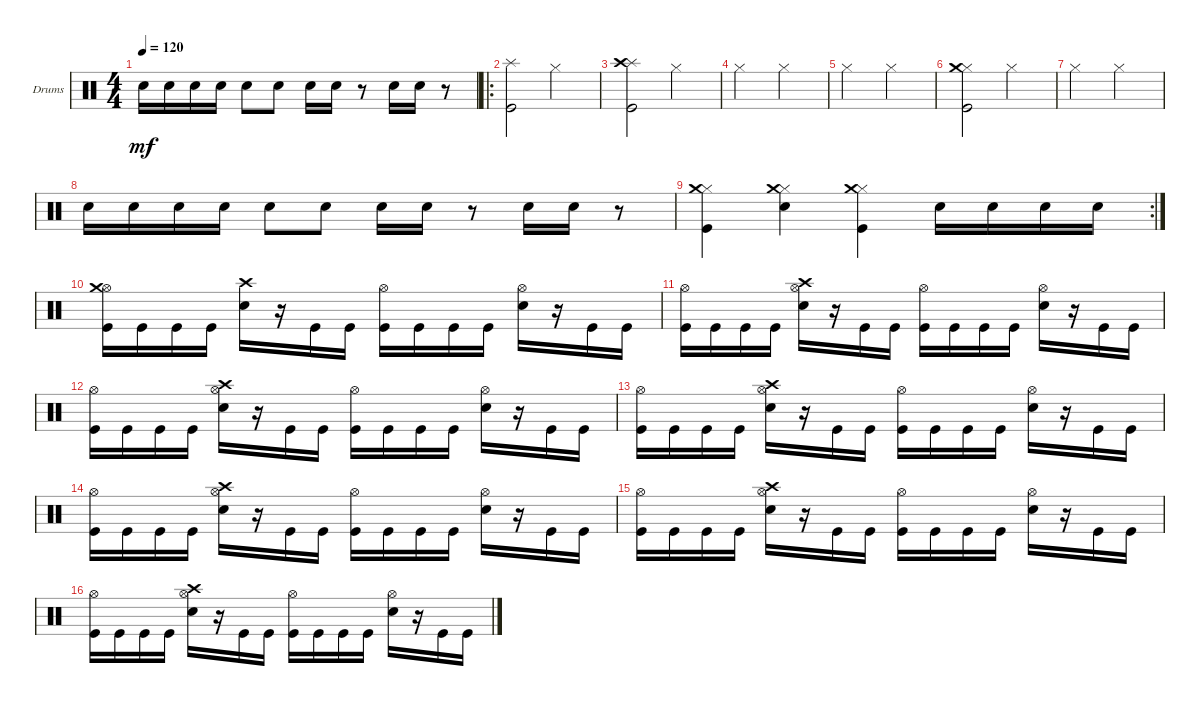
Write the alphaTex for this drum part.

\bracketExtendMode groupsimilarinstruments
\firstSystemTrackNameOrientation horizontal
\otherSystemsTrackNameOrientation horizontal
\track ("Drumkit" "Drums") {instrument percussion}
\staff {score}
\articulation defaults
\ts (4 4)
\tempo 120
\clef neutral
\ks c "Snare (hit) 2".16{dy mf} "Snare (hit) 2".16 "Snare (hit) 2".16 "Snare (hit) 2".16 "Snare (hit) 2".8 "Snare (hit) 2".8 "Snare (hit) 2".16 "Snare (hit) 2".16
r.8 "Snare (hit) 2".16 "Snare (hit) 2".16 r.8 |
\ro
\scale
0.502222 ("Splash (hit)" "Kick (hit)").2 "Hi-Hat (closed)".2 |
\scale
0.248889 ("Splash (hit)" "Kick (hit)" "Crash high (hit)").2 "Hi-Hat (closed)".2 |
\scale
0.248889 "Hi-Hat (closed)".2 "Hi-Hat (closed)".2 |
\scale
0.333333 "Hi-Hat (closed)".2 "Hi-Hat (closed)".2 |
\scale
0.333333 ("Hi-Hat (closed)" "Kick (hit)" "Crash medium (hit)").2 "Hi-Hat (closed)".2 |
\scale
0.333333 "Hi-Hat (closed)".2 "Hi-Hat (closed)".2 |
\scale
0.321839 "Snare (hit) 2".16 "Snare (hit) 2".16 "Snare (hit) 2".16 "Snare (hit) 2".16 "Snare (hit) 2".8 "Snare (hit) 2".8 "Snare (hit) 2".16 "Snare (hit) 2".16 r.8 "Snare (hit) 2".16 "Snare (hit) 2".16 r.8 |
\rc 2
\scale
0.356322 ("Hi-Hat (closed)" "Crash medium (hit)" "Kick (hit)").4 ("Hi-Hat (closed)" "Crash medium (hit)" "Snare (hit) 2").4 ("Hi-Hat (closed)" "Crash medium (hit)" "Kick (hit)").4 "Snare (hit) 2".16 "Snare (hit) 2".16 "Snare (hit) 2".16 "Snare (hit) 2".16 |
\scale
0.321839 ("Hi-Hat (open)" "Crash medium (hit)" "Kick (hit)").16 "Kick (hit)".16 "Kick (hit)".16 "Kick (hit)".16 ("Snare (hit) 2" "Crash high (hit)").16 r.16 "Kick (hit)".16 "Kick (hit)".16 ("Kick (hit)" "Hi-Hat (open)").16 "Kick (hit)".16 "Kick (hit)".16 "Kick (hit)".16 ("Snare (hit) 2" "Hi-Hat (open)").16 r.16 "Kick (hit)".16 "Kick (hit)".16 |
\scale
0.333333 ("Hi-Hat (open)" "Kick (hit)").16 "Kick (hit)".16 "Kick (hit)".16 "Kick (hit)".16 ("Snare (hit) 2" "Crash high (hit)" "Hi-Hat (open)").16 r.16 "Kick (hit)".16 "Kick (hit)".16 ("Kick (hit)" "Hi-Hat (open)").16 "Kick (hit)".16 "Kick (hit)".16 "Kick (hit)".16 ("Snare (hit) 2" "Hi-Hat (open)").16 r.16 "Kick (hit)".16 "Kick (hit)".16 |
\scale
0.333333 ("Hi-Hat (open)" "Kick (hit)").16 "Kick (hit)".16 "Kick (hit)".16 "Kick (hit)".16 ("Snare (hit) 2" "Crash high (hit)" "Hi-Hat (open)").16 r.16 "Kick (hit)".16 "Kick (hit)".16 ("Kick (hit)" "Hi-Hat (open)").16 "Kick (hit)".16 "Kick (hit)".16 "Kick (hit)".16 ("Snare (hit) 2" "Hi-Hat (open)").16 r.16 "Kick (hit)".16 "Kick (hit)".16 |
\scale
0.333333 ("Hi-Hat (open)" "Kick (hit)").16 "Kick (hit)".16 "Kick (hit)".16 "Kick (hit)".16 ("Snare (hit) 2" "Crash high (hit)" "Hi-Hat (open)").16 r.16 "Kick (hit)".16 "Kick (hit)".16 ("Kick (hit)" "Hi-Hat (open)").16 "Kick (hit)".16 "Kick (hit)".16 "Kick (hit)".16 ("Snare (hit) 2" "Hi-Hat (open)").16 r.16 "Kick (hit)".16 "Kick (hit)".16 |
\scale
0.333333 ("Hi-Hat (open)" "Kick (hit)").16 "Kick (hit)".16 "Kick (hit)".16 "Kick (hit)".16 ("Snare (hit) 2" "Crash high (hit)" "Hi-Hat (open)").16 r.16 "Kick (hit)".16 "Kick (hit)".16 ("Kick (hit)" "Hi-Hat (open)").16 "Kick (hit)".16 "Kick (hit)".16 "Kick (hit)".16 ("Snare (hit) 2" "Hi-Hat (open)").16 r.16 "Kick (hit)".16 "Kick (hit)".16 |
\scale
0.333333 ("Hi-Hat (open)" "Kick (hit)").16 "Kick (hit)".16 "Kick (hit)".16 "Kick (hit)".16 ("Snare (hit) 2" "Crash high (hit)" "Hi-Hat (open)").16 r.16 "Kick (hit)".16 "Kick (hit)".16 ("Kick (hit)" "Hi-Hat (open)").16 "Kick (hit)".16 "Kick (hit)".16 "Kick (hit)".16 ("Snare (hit) 2" "Hi-Hat (open)").16 r.16 "Kick (hit)".16 "Kick (hit)".16 |
\scale
0.333333 ("Hi-Hat (open)" "Kick (hit)").16 "Kick (hit)".16 "Kick (hit)".16 "Kick (hit)".16 ("Snare (hit) 2" "Crash high (hit)" "Hi-Hat (open)").16 r.16 "Kick (hit)".16 "Kick (hit)".16 ("Kick (hit)" "Hi-Hat (open)").16 "Kick (hit)".16 "Kick (hit)".16 "Kick (hit)".16 ("Snare (hit) 2" "Hi-Hat (open)").16 r.16 "Kick (hit)".16 "Kick (hit)".16
